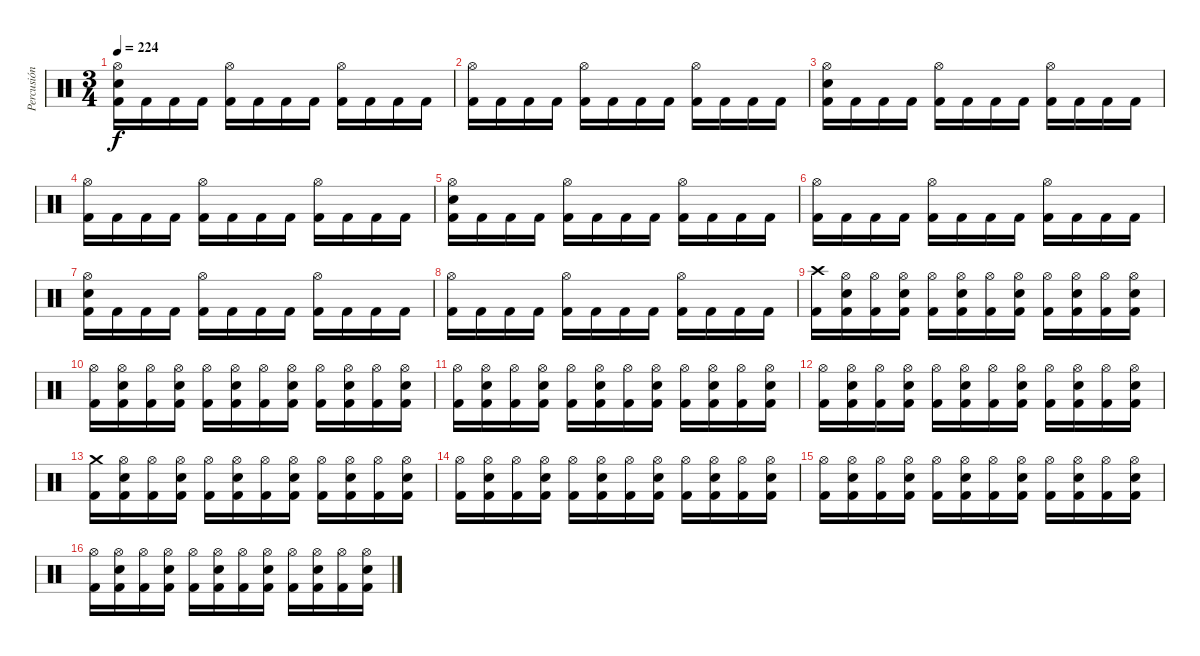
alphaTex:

\track ("Percusión" "Percusión") {instrument percussion}
\staff {score}
\articulation defaults
\ts (3 4)
\tempo 224
\clef neutral
\ks c
("Hi-Hat (open)" "Electric Snare (hit)" "Kick (hit) 2").16{dy f} "Kick (hit) 2".16 "Kick (hit) 2".16 "Kick (hit) 2".16 ("Hi-Hat (open)" "Kick (hit) 2").16 "Kick (hit) 2".16 "Kick (hit) 2".16 "Kick (hit) 2".16 ("Hi-Hat (open)" "Kick (hit) 2").16 "Kick (hit) 2".16 "Kick (hit) 2".16 "Kick (hit) 2".16 |
("Hi-Hat (open)" "Kick (hit) 2").16 "Kick (hit) 2".16 "Kick (hit) 2".16 "Kick (hit) 2".16 ("Hi-Hat (open)" "Kick (hit) 2").16 "Kick (hit) 2".16 "Kick (hit) 2".16 "Kick (hit) 2".16 ("Hi-Hat (open)" "Kick (hit) 2").16 "Kick (hit) 2".16 "Kick (hit) 2".16 "Kick (hit) 2".16 |
("Hi-Hat (open)" "Electric Snare (hit)" "Kick (hit) 2").16 "Kick (hit) 2".16 "Kick (hit) 2".16 "Kick (hit) 2".16 ("Hi-Hat (open)" "Kick (hit) 2").16 "Kick (hit) 2".16 "Kick (hit) 2".16 "Kick (hit) 2".16 ("Hi-Hat (open)" "Kick (hit) 2").16 "Kick (hit) 2".16 "Kick (hit) 2".16 "Kick (hit) 2".16 |
("Hi-Hat (open)" "Kick (hit) 2").16 "Kick (hit) 2".16 "Kick (hit) 2".16 "Kick (hit) 2".16 ("Hi-Hat (open)" "Kick (hit) 2").16 "Kick (hit) 2".16 "Kick (hit) 2".16 "Kick (hit) 2".16 ("Hi-Hat (open)" "Kick (hit) 2").16 "Kick (hit) 2".16 "Kick (hit) 2".16 "Kick (hit) 2".16 |
("Hi-Hat (open)" "Electric Snare (hit)" "Kick (hit) 2").16 "Kick (hit) 2".16 "Kick (hit) 2".16 "Kick (hit) 2".16 ("Hi-Hat (open)" "Kick (hit) 2").16 "Kick (hit) 2".16 "Kick (hit) 2".16 "Kick (hit) 2".16 ("Hi-Hat (open)" "Kick (hit) 2").16 "Kick (hit) 2".16 "Kick (hit) 2".16 "Kick (hit) 2".16 |
("Hi-Hat (open)" "Kick (hit) 2").16 "Kick (hit) 2".16 "Kick (hit) 2".16 "Kick (hit) 2".16 ("Hi-Hat (open)" "Kick (hit) 2").16 "Kick (hit) 2".16 "Kick (hit) 2".16 "Kick (hit) 2".16 ("Hi-Hat (open)" "Kick (hit) 2").16 "Kick (hit) 2".16 "Kick (hit) 2".16 "Kick (hit) 2".16 |
("Hi-Hat (open)" "Electric Snare (hit)" "Kick (hit) 2").16 "Kick (hit) 2".16 "Kick (hit) 2".16 "Kick (hit) 2".16 ("Hi-Hat (open)" "Kick (hit) 2").16 "Kick (hit) 2".16 "Kick (hit) 2".16 "Kick (hit) 2".16 ("Hi-Hat (open)" "Kick (hit) 2").16 "Kick (hit) 2".16 "Kick (hit) 2".16 "Kick (hit) 2".16 |
("Hi-Hat (open)" "Kick (hit) 2").16 "Kick (hit) 2".16 "Kick (hit) 2".16 "Kick (hit) 2".16 ("Hi-Hat (open)" "Kick (hit) 2").16 "Kick (hit) 2".16 "Kick (hit) 2".16 "Kick (hit) 2".16 ("Hi-Hat (open)" "Kick (hit) 2").16 "Kick (hit) 2".16 "Kick (hit) 2".16 "Kick (hit) 2".16 |
("Crash high (hit)" "Kick (hit) 2").16 ("Hi-Hat (open)" "Electric Snare (hit)" "Kick (hit) 2").16 ("Hi-Hat (open)" "Kick (hit) 2").16 ("Hi-Hat (open)" "Electric Snare (hit)" "Kick (hit) 2").16 ("Hi-Hat (open)" "Kick (hit) 2").16 ("Hi-Hat (open)" "Electric Snare (hit)" "Kick (hit) 2").16 ("Hi-Hat (open)" "Kick (hit) 2").16 ("Hi-Hat (open)" "Electric Snare (hit)" "Kick (hit) 2").16 ("Hi-Hat (open)" "Kick (hit) 2").16 ("Hi-Hat (open)" "Electric Snare (hit)" "Kick (hit) 2").16 ("Hi-Hat (open)" "Kick (hit) 2").16 ("Hi-Hat (open)" "Electric Snare (hit)" "Kick (hit) 2").16 |
("Hi-Hat (open)" "Kick (hit) 2").16 ("Hi-Hat (open)" "Electric Snare (hit)" "Kick (hit) 2").16 ("Hi-Hat (open)" "Kick (hit) 2").16 ("Hi-Hat (open)" "Electric Snare (hit)" "Kick (hit) 2").16 ("Hi-Hat (open)" "Kick (hit) 2").16 ("Hi-Hat (open)" "Electric Snare (hit)" "Kick (hit) 2").16 ("Hi-Hat (open)" "Kick (hit) 2").16 ("Hi-Hat (open)" "Electric Snare (hit)" "Kick (hit) 2").16 ("Hi-Hat (open)" "Kick (hit) 2").16 ("Hi-Hat (open)" "Electric Snare (hit)" "Kick (hit) 2").16 ("Hi-Hat (open)" "Kick (hit) 2").16 ("Hi-Hat (open)" "Electric Snare (hit)" "Kick (hit) 2").16 |
("Hi-Hat (open)" "Kick (hit) 2").16 ("Hi-Hat (open)" "Electric Snare (hit)" "Kick (hit) 2").16 ("Hi-Hat (open)" "Kick (hit) 2").16 ("Hi-Hat (open)" "Electric Snare (hit)" "Kick (hit) 2").16 ("Hi-Hat (open)" "Kick (hit) 2").16 ("Hi-Hat (open)" "Electric Snare (hit)" "Kick (hit) 2").16 ("Hi-Hat (open)" "Kick (hit) 2").16 ("Hi-Hat (open)" "Electric Snare (hit)" "Kick (hit) 2").16 ("Hi-Hat (open)" "Kick (hit) 2").16 ("Hi-Hat (open)" "Electric Snare (hit)" "Kick (hit) 2").16 ("Hi-Hat (open)" "Kick (hit) 2").16 ("Hi-Hat (open)" "Electric Snare (hit)" "Kick (hit) 2").16 |
("Hi-Hat (open)" "Kick (hit) 2").16 ("Hi-Hat (open)" "Electric Snare (hit)" "Kick (hit) 2").16 ("Hi-Hat (open)" "Kick (hit) 2").16 ("Hi-Hat (open)" "Electric Snare (hit)" "Kick (hit) 2").16 ("Hi-Hat (open)" "Kick (hit) 2").16 ("Hi-Hat (open)" "Electric Snare (hit)" "Kick (hit) 2").16 ("Hi-Hat (open)" "Kick (hit) 2").16 ("Hi-Hat (open)" "Electric Snare (hit)" "Kick (hit) 2").16 ("Hi-Hat (open)" "Kick (hit) 2").16 ("Hi-Hat (open)" "Electric Snare (hit)" "Kick (hit) 2").16 ("Hi-Hat (open)" "Kick (hit) 2").16 ("Hi-Hat (open)" "Electric Snare (hit)" "Kick (hit) 2").16 |
("Crash medium (hit)" "Kick (hit) 2").16 ("Hi-Hat (open)" "Electric Snare (hit)" "Kick (hit) 2").16 ("Hi-Hat (open)" "Kick (hit) 2").16 ("Hi-Hat (open)" "Electric Snare (hit)" "Kick (hit) 2").16 ("Hi-Hat (open)" "Kick (hit) 2").16 ("Hi-Hat (open)" "Electric Snare (hit)" "Kick (hit) 2").16 ("Hi-Hat (open)" "Kick (hit) 2").16 ("Hi-Hat (open)" "Electric Snare (hit)" "Kick (hit) 2").16 ("Hi-Hat (open)" "Kick (hit) 2").16 ("Hi-Hat (open)" "Electric Snare (hit)" "Kick (hit) 2").16 ("Hi-Hat (open)" "Kick (hit) 2").16 ("Hi-Hat (open)" "Electric Snare (hit)" "Kick (hit) 2").16 |
("Hi-Hat (open)" "Kick (hit) 2").16 ("Hi-Hat (open)" "Electric Snare (hit)" "Kick (hit) 2").16 ("Hi-Hat (open)" "Kick (hit) 2").16 ("Hi-Hat (open)" "Electric Snare (hit)" "Kick (hit) 2").16 ("Hi-Hat (open)" "Kick (hit) 2").16 ("Hi-Hat (open)" "Electric Snare (hit)" "Kick (hit) 2").16 ("Hi-Hat (open)" "Kick (hit) 2").16 ("Hi-Hat (open)" "Electric Snare (hit)" "Kick (hit) 2").16 ("Hi-Hat (open)" "Kick (hit) 2").16 ("Hi-Hat (open)" "Electric Snare (hit)" "Kick (hit) 2").16 ("Hi-Hat (open)" "Kick (hit) 2").16 ("Hi-Hat (open)" "Electric Snare (hit)" "Kick (hit) 2").16 |
("Hi-Hat (open)" "Kick (hit) 2").16 ("Hi-Hat (open)" "Electric Snare (hit)" "Kick (hit) 2").16 ("Hi-Hat (open)" "Kick (hit) 2").16 ("Hi-Hat (open)" "Electric Snare (hit)" "Kick (hit) 2").16 ("Hi-Hat (open)" "Kick (hit) 2").16 ("Hi-Hat (open)" "Electric Snare (hit)" "Kick (hit) 2").16 ("Hi-Hat (open)" "Kick (hit) 2").16 ("Hi-Hat (open)" "Electric Snare (hit)" "Kick (hit) 2").16 ("Hi-Hat (open)" "Kick (hit) 2").16 ("Hi-Hat (open)" "Electric Snare (hit)" "Kick (hit) 2").16 ("Hi-Hat (open)" "Kick (hit) 2").16 ("Hi-Hat (open)" "Electric Snare (hit)" "Kick (hit) 2").16 |
("Hi-Hat (open)" "Kick (hit) 2").16 ("Hi-Hat (open)" "Electric Snare (hit)" "Kick (hit) 2").16 ("Hi-Hat (open)" "Kick (hit) 2").16 ("Hi-Hat (open)" "Electric Snare (hit)" "Kick (hit) 2").16 ("Hi-Hat (open)" "Kick (hit) 2").16 ("Hi-Hat (open)" "Electric Snare (hit)" "Kick (hit) 2").16 ("Hi-Hat (open)" "Kick (hit) 2").16 ("Hi-Hat (open)" "Electric Snare (hit)" "Kick (hit) 2").16 ("Hi-Hat (open)" "Kick (hit) 2").16 ("Hi-Hat (open)" "Electric Snare (hit)" "Kick (hit) 2").16 ("Hi-Hat (open)" "Kick (hit) 2").16 ("Hi-Hat (open)" "Electric Snare (hit)" "Kick (hit) 2").16
